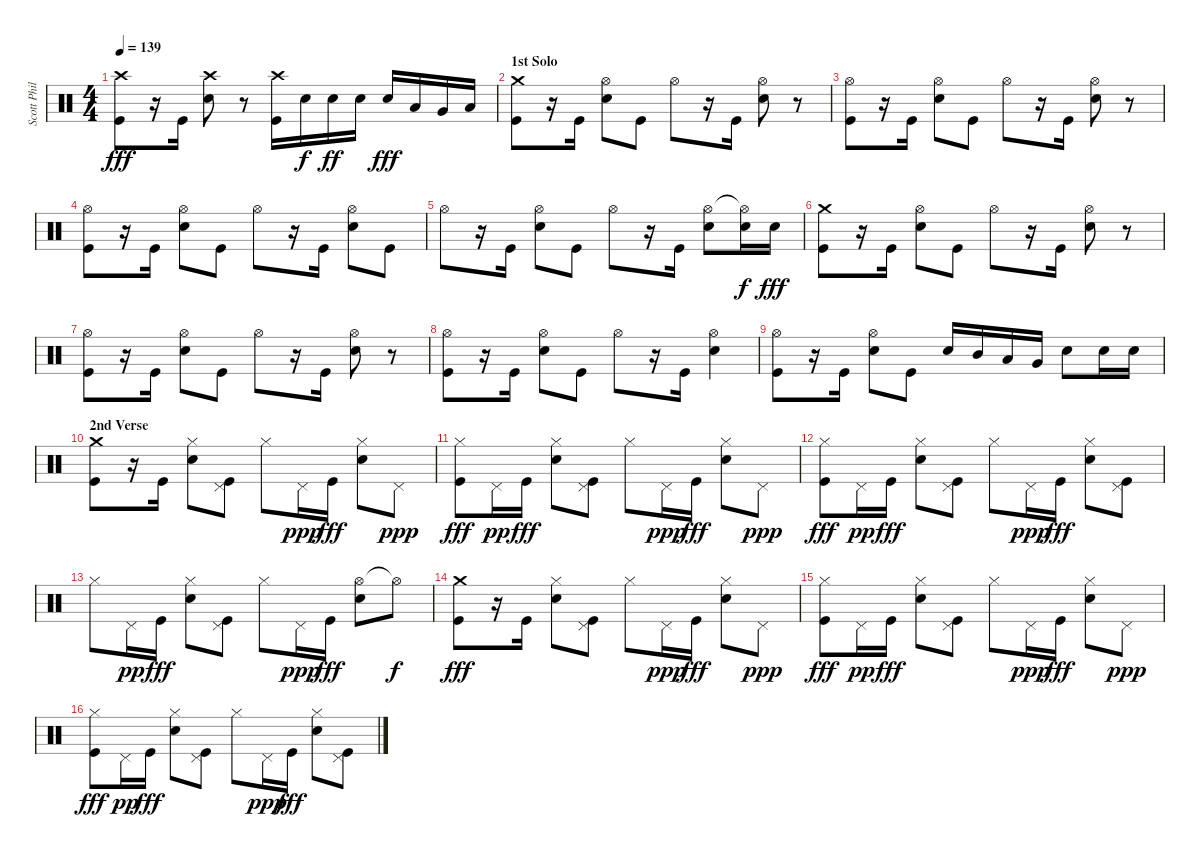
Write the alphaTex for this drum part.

\track ("Scott Phillips - Drums" "Scott Phil") {instrument percussion}
\staff {score}
\articulation defaults
\ts (4 4)
\tempo 139
\clef neutral
\ks c
("Crash high (hit)" "Kick (hit)").8{dy fff} r.16 "Kick (hit)".16 ("Crash high (hit)" "Electric Snare (hit)").8 r.8 ("Crash high (hit)" "Kick (hit)").16 "Electric Snare (hit)".16{dy f} "Electric Snare (hit)".16{dy ff} "Electric Snare (hit)".16 "Electric Snare (hit)".16{dy fff} "Low Tom (hit)".16 "Very Low Tom (hit)".16 "Low Floor Tom (hit)".16 |
\section ("" "1st Solo")
("Crash medium (hit)" "Kick (hit)").8 r.16 "Kick (hit)".16 ("Hi-Hat (open)" "Electric Snare (hit)").8 "Kick (hit)".8 "Hi-Hat (open)".8 r.16 "Kick (hit)".16 ("Hi-Hat (open)" "Electric Snare (hit)").8 r.8 |
("Hi-Hat (open)" "Kick (hit)").8 r.16 "Kick (hit)".16 ("Hi-Hat (open)" "Electric Snare (hit)").8 "Kick (hit)".8 "Hi-Hat (open)".8 r.16 "Kick (hit)".16 ("Hi-Hat (open)" "Electric Snare (hit)").8 r.8 |
("Hi-Hat (open)" "Kick (hit)").8 r.16 "Kick (hit)".16 ("Hi-Hat (open)" "Electric Snare (hit)").8 "Kick (hit)".8 "Hi-Hat (open)".8 r.16 "Kick (hit)".16 ("Hi-Hat (open)" "Electric Snare (hit)").8 "Kick (hit)".8 |
"Hi-Hat (open)".8 r.16 "Kick (hit)".16 ("Hi-Hat (open)" "Electric Snare (hit)").8 "Kick (hit)".8 "Hi-Hat (open)".8 r.16 "Kick (hit)".16 ("Hi-Hat (open)" "Electric Snare (hit)").8 ("Hi-Hat (open)"{t} "Electric Snare (hit)").16{dy f} "Electric Snare (hit)".16{dy fff} |
("Crash medium (hit)" "Kick (hit)").8 r.16 "Kick (hit)".16 ("Hi-Hat (open)" "Electric Snare (hit)").8 "Kick (hit)".8 "Hi-Hat (open)".8 r.16 "Kick (hit)".16 ("Hi-Hat (open)" "Electric Snare (hit)").8 r.8 |
("Hi-Hat (open)" "Kick (hit)").8 r.16 "Kick (hit)".16 ("Hi-Hat (open)" "Electric Snare (hit)").8 "Kick (hit)".8 "Hi-Hat (open)".8 r.16 "Kick (hit)".16 ("Hi-Hat (open)" "Electric Snare (hit)").8 r.8 |
("Hi-Hat (open)" "Kick (hit)").8 r.16 "Kick (hit)".16 ("Hi-Hat (open)" "Electric Snare (hit)").8 "Kick (hit)".8 "Hi-Hat (open)".8 r.16 "Kick (hit)".16 ("Hi-Hat (open)" "Electric Snare (hit)").4 |
("Hi-Hat (open)" "Kick (hit)").8 r.16 "Kick (hit)".16 ("Hi-Hat (open)" "Electric Snare (hit)").8 "Kick (hit)".8 "Electric Snare (hit)".16 "Mid Tom (hit)".16 "Low Tom (hit)".16 "Very Low Tom (hit)".16 "Electric Snare (hit)".8 "Electric Snare (hit)".16 "Electric Snare (hit)".16 |
\section ("" "2nd Verse")
("Crash medium (hit)" "Kick (hit)").8 r.16 "Kick (hit)".16 ("Hi-Hat (closed)" "Electric Snare (hit)").8 ("Pedal Hi-Hat (hit)" "Kick (hit)").8 "Hi-Hat (closed)".8 "Pedal Hi-Hat (hit)".16{dy ppp} "Kick (hit)".16{dy fff} ("Hi-Hat (closed)" "Electric Snare (hit)").8 "Pedal Hi-Hat (hit)".8{dy ppp} |
("Hi-Hat (closed)" "Kick (hit)").8{dy fff} "Pedal Hi-Hat (hit)".16{dy pp} "Kick (hit)".16{dy fff} ("Hi-Hat (closed)" "Electric Snare (hit)").8 ("Pedal Hi-Hat (hit)" "Kick (hit)").8 "Hi-Hat (closed)".8 "Pedal Hi-Hat (hit)".16{dy ppp} "Kick (hit)".16{dy fff} ("Hi-Hat (closed)" "Electric Snare (hit)").8 "Pedal Hi-Hat (hit)".8{dy ppp} |
("Hi-Hat (closed)" "Kick (hit)").8{dy fff} "Pedal Hi-Hat (hit)".16{dy pp} "Kick (hit)".16{dy fff} ("Hi-Hat (closed)" "Electric Snare (hit)").8 ("Pedal Hi-Hat (hit)" "Kick (hit)").8 "Hi-Hat (closed)".8 "Pedal Hi-Hat (hit)".16{dy ppp} "Kick (hit)".16{dy fff} ("Hi-Hat (closed)" "Electric Snare (hit)").8 ("Pedal Hi-Hat (hit)" "Kick (hit)").8 |
"Hi-Hat (closed)".8 "Pedal Hi-Hat (hit)".16{dy pp} "Kick (hit)".16{dy fff} ("Hi-Hat (closed)" "Electric Snare (hit)").8 ("Pedal Hi-Hat (hit)" "Kick (hit)").8 "Hi-Hat (closed)".8 "Pedal Hi-Hat (hit)".16{dy ppp} "Kick (hit)".16{dy fff} ("Hi-Hat (open)" "Electric Snare (hit)").8 "Hi-Hat (open)"{t}.8{dy f} |
("Crash medium (hit)" "Kick (hit)").8{dy fff} r.16 "Kick (hit)".16 ("Hi-Hat (closed)" "Electric Snare (hit)").8 ("Pedal Hi-Hat (hit)" "Kick (hit)").8 "Hi-Hat (closed)".8 "Pedal Hi-Hat (hit)".16{dy ppp} "Kick (hit)".16{dy fff} ("Hi-Hat (closed)" "Electric Snare (hit)").8 "Pedal Hi-Hat (hit)".8{dy ppp} |
("Hi-Hat (closed)" "Kick (hit)").8{dy fff} "Pedal Hi-Hat (hit)".16{dy pp} "Kick (hit)".16{dy fff} ("Hi-Hat (closed)" "Electric Snare (hit)").8 ("Pedal Hi-Hat (hit)" "Kick (hit)").8 "Hi-Hat (closed)".8 "Pedal Hi-Hat (hit)".16{dy ppp} "Kick (hit)".16{dy fff} ("Hi-Hat (closed)" "Electric Snare (hit)").8 "Pedal Hi-Hat (hit)".8{dy ppp} |
("Hi-Hat (closed)" "Kick (hit)").8{dy fff} "Pedal Hi-Hat (hit)".16{dy pp} "Kick (hit)".16{dy fff} ("Hi-Hat (closed)" "Electric Snare (hit)").8 ("Pedal Hi-Hat (hit)" "Kick (hit)").8 "Hi-Hat (closed)".8 "Pedal Hi-Hat (hit)".16{dy ppp} "Kick (hit)".16{dy fff} ("Hi-Hat (closed)" "Electric Snare (hit)").8 ("Pedal Hi-Hat (hit)" "Kick (hit)").8
